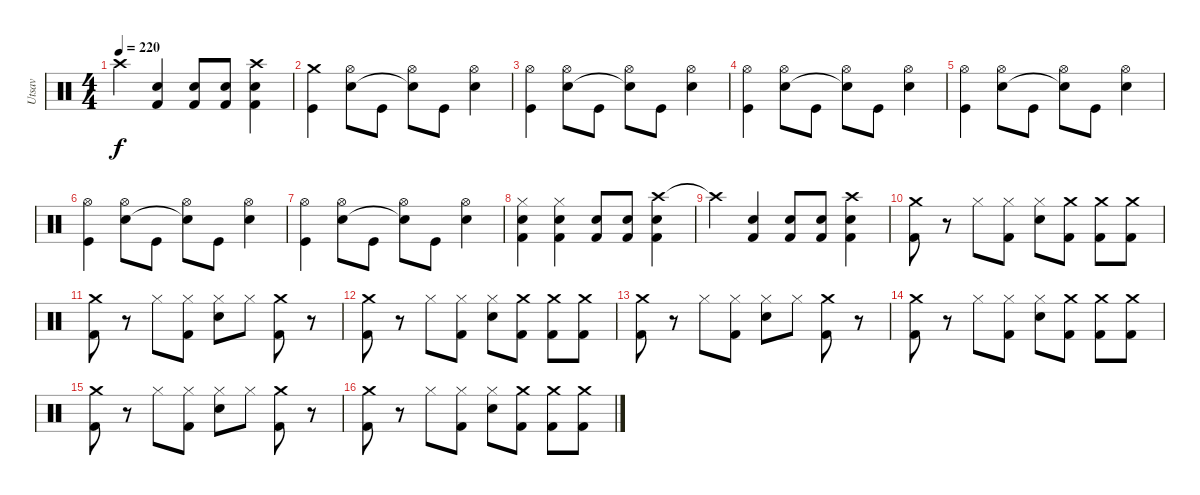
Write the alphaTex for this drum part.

\track ("Utsav" "Utsav") {instrument percussion}
\staff {score}
\articulation defaults
\ts (4 4)
\tempo 220
\clef neutral
\ks c "Crash high (hit)"{t}.4{dy f}
("Kick (hit) 2" "Snare (hit) 2").4 ("Kick (hit) 2" "Snare (hit) 2").8 ("Kick (hit) 2" "Snare (hit) 2").8 ("Crash high (hit)" "Kick (hit) 2" "Snare (hit) 2").4 |
("Crash medium (hit)" "Kick (hit)").4 ("Hi-Hat (open)" "Electric Snare (hit)").8 "Kick (hit)".8 ("Hi-Hat (open)" "Snare (hit)"{t}).8 "Kick (hit)".8 ("Hi-Hat (open)" "Electric Snare (hit)").4 |
("Hi-Hat (open)" "Kick (hit)").4 ("Hi-Hat (open)" "Electric Snare (hit)").8 "Kick (hit)".8 ("Hi-Hat (open)" "Snare (hit)"{t}).8 "Kick (hit)".8 ("Hi-Hat (open)" "Electric Snare (hit)").4 |
("Hi-Hat (open)" "Kick (hit)").4 ("Hi-Hat (open)" "Electric Snare (hit)").8 "Kick (hit)".8 ("Hi-Hat (open)" "Snare (hit)"{t}).8 "Kick (hit)".8 ("Hi-Hat (open)" "Electric Snare (hit)").4 |
("Hi-Hat (open)" "Kick (hit)").4 ("Hi-Hat (open)" "Electric Snare (hit)").8 "Kick (hit)".8 ("Hi-Hat (open)" "Snare (hit)"{t}).8 "Kick (hit)".8 ("Hi-Hat (open)" "Electric Snare (hit)").4 |
("Hi-Hat (open)" "Kick (hit)").4 ("Hi-Hat (open)" "Electric Snare (hit)").8 "Kick (hit)".8 ("Hi-Hat (open)" "Snare (hit)"{t}).8 "Kick (hit)".8 ("Hi-Hat (open)" "Electric Snare (hit)").4 |
("Hi-Hat (open)" "Kick (hit)").4 ("Hi-Hat (open)" "Electric Snare (hit)").8 "Kick (hit)".8 ("Hi-Hat (open)" "Snare (hit)"{t}).8 "Kick (hit)".8 ("Hi-Hat (open)" "Electric Snare (hit)").4 |
("Snare (hit) 2" "Hi-Hat (closed)" "Kick (hit) 2").4 ("Snare (hit) 2" "Hi-Hat (closed)" "Kick (hit) 2").4 ("Snare (hit) 2" "Kick (hit) 2").8 ("Snare (hit) 2" "Kick (hit) 2").8 ("Crash high (hit)" "Snare (hit) 2" "Kick (hit) 2").4 |
"Crash high (hit)"{t}.4 ("Kick (hit) 2" "Snare (hit) 2").4 ("Kick (hit) 2" "Snare (hit) 2").8 ("Kick (hit) 2" "Snare (hit) 2").8 ("Crash high (hit)" "Kick (hit) 2" "Snare (hit) 2").4 |
("Crash medium (hit)" "Kick (hit) 2").8 r.8 "Hi-Hat (closed)".8 ("Hi-Hat (closed)" "Kick (hit) 2").8 ("Hi-Hat (closed)" "Snare (hit) 2").8 ("Crash medium (hit)" "Kick (hit) 2").8 ("Crash medium (hit)" "Kick (hit) 2").8 ("Crash medium (hit)" "Kick (hit) 2").8 |
("Crash medium (hit)" "Kick (hit) 2").8 r.8 "Hi-Hat (closed)".8 ("Hi-Hat (closed)" "Kick (hit) 2").8 ("Hi-Hat (closed)" "Snare (hit) 2").8 "Hi-Hat (closed)".8 ("Crash medium (hit)" "Kick (hit) 2").8 r.8 |
("Crash medium (hit)" "Kick (hit) 2").8 r.8 "Hi-Hat (closed)".8 ("Hi-Hat (closed)" "Kick (hit) 2").8 ("Hi-Hat (closed)" "Snare (hit) 2").8 ("Crash medium (hit)" "Kick (hit) 2").8 ("Crash medium (hit)" "Kick (hit) 2").8 ("Crash medium (hit)" "Kick (hit) 2").8 |
("Crash medium (hit)" "Kick (hit) 2").8 r.8 "Hi-Hat (closed)".8 ("Hi-Hat (closed)" "Kick (hit) 2").8 ("Hi-Hat (closed)" "Snare (hit) 2").8 "Hi-Hat (closed)".8 ("Crash medium (hit)" "Kick (hit) 2").8 r.8 |
("Crash medium (hit)" "Kick (hit) 2").8 r.8 "Hi-Hat (closed)".8 ("Hi-Hat (closed)" "Kick (hit) 2").8 ("Hi-Hat (closed)" "Snare (hit) 2").8 ("Crash medium (hit)" "Kick (hit) 2").8 ("Crash medium (hit)" "Kick (hit) 2").8 ("Crash medium (hit)" "Kick (hit) 2").8 |
("Crash medium (hit)" "Kick (hit) 2").8 r.8 "Hi-Hat (closed)".8 ("Hi-Hat (closed)" "Kick (hit) 2").8 ("Hi-Hat (closed)" "Snare (hit) 2").8 "Hi-Hat (closed)".8 ("Crash medium (hit)" "Kick (hit) 2").8 r.8 |
("Crash medium (hit)" "Kick (hit) 2").8 r.8 "Hi-Hat (closed)".8 ("Hi-Hat (closed)" "Kick (hit) 2").8 ("Hi-Hat (closed)" "Snare (hit) 2").8 ("Crash medium (hit)" "Kick (hit) 2").8 ("Crash medium (hit)" "Kick (hit) 2").8 ("Crash medium (hit)" "Kick (hit) 2").8
